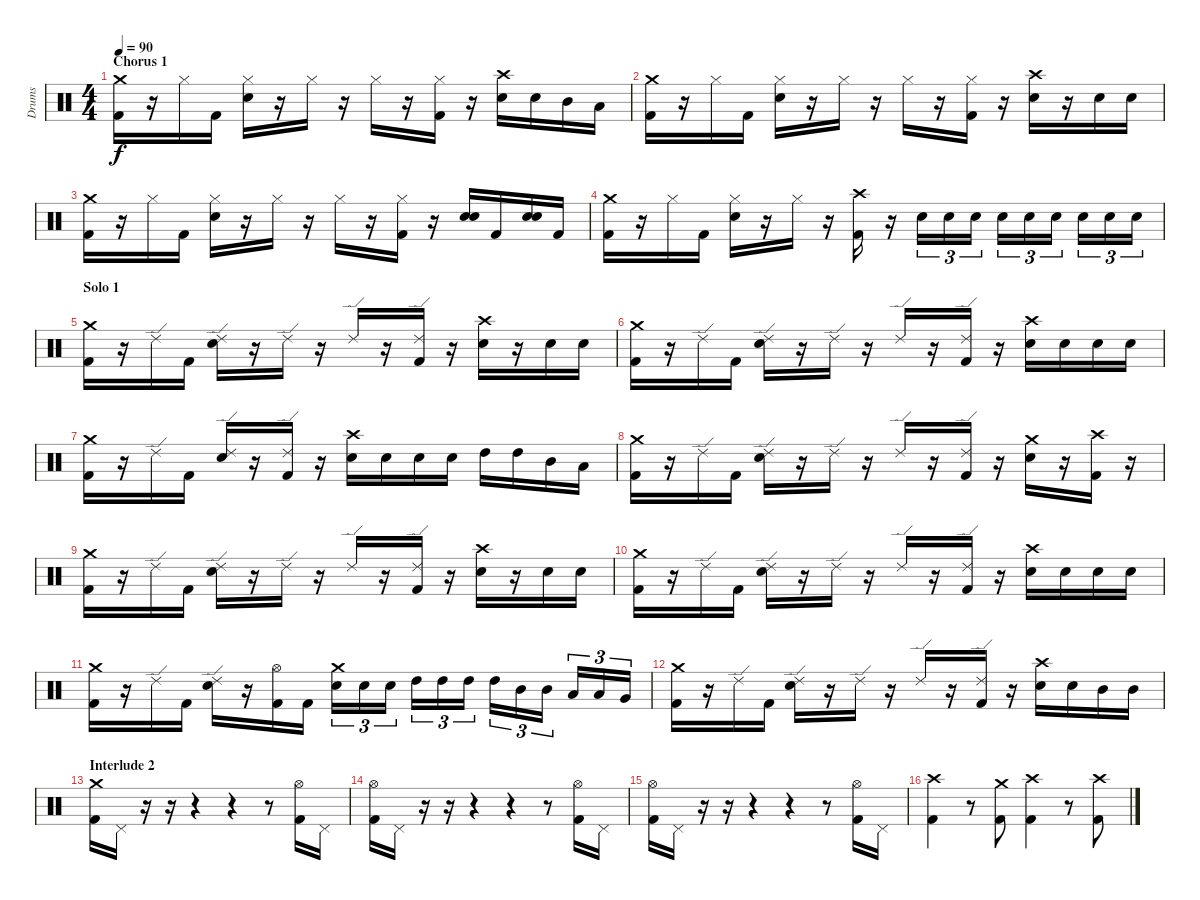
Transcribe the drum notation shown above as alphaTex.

\track ("Drums" "Drums") {instrument percussion}
\staff {score}
\articulation defaults
\ts (4 4)
\section ("" "Chorus 1")
\tempo 90
\clef neutral
\ks c
("Crash medium (hit)" "Kick (hit) 2").16{dy f} r.16 "Hi-Hat (closed)".16 "Kick (hit) 2".16 ("Hi-Hat (closed)" "Electric Snare (hit)").16 r.16 "Hi-Hat (closed)".16 r.16 "Hi-Hat (closed)".16 r.16 ("Hi-Hat (closed)" "Kick (hit) 2").16 r.16 ("Crash high (hit)" "Electric Snare (hit)").16 "Electric Snare (hit)".16 "Mid Tom (hit)".16 "Low Tom (hit)".16 |
("Crash medium (hit)" "Kick (hit) 2").16 r.16 "Hi-Hat (closed)".16 "Kick (hit) 2".16 ("Hi-Hat (closed)" "Electric Snare (hit)").16 r.16 "Hi-Hat (closed)".16 r.16 "Hi-Hat (closed)".16 r.16 ("Hi-Hat (closed)" "Kick (hit) 2").16 r.16 ("Crash high (hit)" "Electric Snare (hit)").16 r.16 "Electric Snare (hit)".16 "Electric Snare (hit)".16 |
("Crash medium (hit)" "Kick (hit) 2").16 r.16 "Hi-Hat (closed)".16 "Kick (hit) 2".16 ("Hi-Hat (closed)" "Electric Snare (hit)").16 r.16 "Hi-Hat (closed)".16 r.16 "Hi-Hat (closed)".16 r.16 ("Hi-Hat (closed)" "Kick (hit) 2").16 r.16 ("Electric Snare (hit)" "Electric Snare (hit)").16{bd 120} "Kick (hit) 2".16 ("Electric Snare (hit)" "Electric Snare (hit)").16{bd 120} "Kick (hit) 2".16 |
("Crash medium (hit)" "Kick (hit) 2").16 r.16 "Hi-Hat (closed)".16 "Kick (hit) 2".16 ("Hi-Hat (closed)" "Electric Snare (hit)").16 r.16 "Hi-Hat (closed)".16 r.16 ("Crash high (hit)" "Kick (hit) 2").16 r.16 "Electric Snare (hit)".16{tu (3 2)} "Electric Snare (hit)".16{tu (3 2)} "Electric Snare (hit)".16{tu (3 2)} "Electric Snare (hit)".16{tu (3 2)} "Electric Snare (hit)".16{tu (3 2)} "Electric Snare (hit)".16{tu (3 2)} "Electric Snare (hit)".16{tu (3 2)} "Electric Snare (hit)".16{tu (3 2)} "Electric Snare (hit)".16{tu (3 2)} |
\section ("" "Solo 1")
("Crash medium (hit)" "Kick (hit) 2").16 r.16 "Ride (edge) 2".16 "Kick (hit) 2".16 ("Ride (edge) 2" "Electric Snare (hit)").16 r.16 "Ride (edge) 2".16 r.16 "Ride (edge) 2".16 r.16 ("Ride (edge) 2" "Kick (hit) 2").16 r.16 ("Crash high (hit)" "Electric Snare (hit)").16 r.16 "Electric Snare (hit)".16 "Electric Snare (hit)".16 |
("Crash medium (hit)" "Kick (hit) 2").16 r.16 "Ride (edge) 2".16 "Kick (hit) 2".16 ("Ride (edge) 2" "Electric Snare (hit)").16 r.16 "Ride (edge) 2".16 r.16 "Ride (edge) 2".16 r.16 ("Ride (edge) 2" "Kick (hit) 2").16 r.16 ("Crash high (hit)" "Electric Snare (hit)").16 "Electric Snare (hit)".16 "Electric Snare (hit)".16 "Electric Snare (hit)".16 |
("Crash medium (hit)" "Kick (hit) 2").16 r.16 "Ride (edge) 2".16 "Kick (hit) 2".16 ("Ride (edge) 2" "Electric Snare (hit)").16 r.16 ("Ride (edge) 2" "Kick (hit) 2").16 r.16 ("Crash high (hit)" "Electric Snare (hit)").16 "Electric Snare (hit)".16 "Electric Snare (hit)".16 "Electric Snare (hit)".16 "High Tom (hit)".16 "High Tom (hit)".16 "Mid Tom (hit)".16 "Low Tom (hit)".16 |
("Crash medium (hit)" "Kick (hit) 2").16 r.16 "Ride (edge) 2".16 "Kick (hit) 2".16 ("Ride (edge) 2" "Electric Snare (hit)").16 r.16 "Ride (edge) 2".16 r.16 "Ride (edge) 2".16 r.16 ("Ride (edge) 2" "Kick (hit) 2").16 r.16 ("Crash medium (hit)" "Electric Snare (hit)").16 r.16 ("Crash high (hit)" "Kick (hit) 2").16 r.16 |
("Crash medium (hit)" "Kick (hit) 2").16 r.16 "Ride (edge) 2".16 "Kick (hit) 2".16 ("Ride (edge) 2" "Electric Snare (hit)").16 r.16 "Ride (edge) 2".16 r.16 "Ride (edge) 2".16 r.16 ("Ride (edge) 2" "Kick (hit) 2").16 r.16 ("Crash high (hit)" "Electric Snare (hit)").16 r.16 "Electric Snare (hit)".16 "Electric Snare (hit)".16 |
("Crash medium (hit)" "Kick (hit) 2").16 r.16 "Ride (edge) 2".16 "Kick (hit) 2".16 ("Ride (edge) 2" "Electric Snare (hit)").16 r.16 "Ride (edge) 2".16 r.16 "Ride (edge) 2".16 r.16 ("Ride (edge) 2" "Kick (hit) 2").16 r.16 ("Crash high (hit)" "Electric Snare (hit)").16 "Electric Snare (hit)".16 "Electric Snare (hit)".16 "Electric Snare (hit)".16 |
("Crash medium (hit)" "Kick (hit) 2").16 r.16 "Ride (edge) 2".16 "Kick (hit) 2".16 ("Ride (edge) 2" "Electric Snare (hit)").16 r.16 ("Hi-Hat (open)" "Kick (hit) 2").16 "Kick (hit) 2".16 ("Crash medium (hit)" "Electric Snare (hit)").16{tu (3 2)} "Electric Snare (hit)".16{tu (3 2)} "Electric Snare (hit)".16{tu (3 2)} "High Tom (hit)".16{tu (3 2)} "High Tom (hit)".16{tu (3 2)} "High Tom (hit)".16{tu (3 2)} "High Tom (hit)".16{tu (3 2)} "Mid Tom (hit)".16{tu (3 2)} "Mid Tom (hit)".16{tu (3 2)} "Low Tom (hit)".16{tu (3 2)} "Low Tom (hit)".16{tu (3 2)} "Very Low Tom (hit)".16{tu (3 2)} |
("Crash medium (hit)" "Kick (hit) 2").16 r.16 "Ride (edge) 2".16 "Kick (hit) 2".16 ("Ride (edge) 2" "Electric Snare (hit)").16 r.16 "Ride (edge) 2".16 r.16 "Ride (edge) 2".16 r.16 ("Ride (edge) 2" "Kick (hit) 2").16 r.16 ("Crash high (hit)" "Electric Snare (hit)").16 "Electric Snare (hit)".16 "Mid Tom (hit)".16 "Mid Tom (hit)".16 |
\section ("" "Interlude 2")
("Crash medium (hit)" "Kick (hit) 2").16 "Pedal Hi-Hat (hit)".16 r.16 r.16 r.4 r.4 r.8 ("Hi-Hat (open)" "Kick (hit) 2").16 "Pedal Hi-Hat (hit)".16 |
("Hi-Hat (open)" "Kick (hit) 2").16 "Pedal Hi-Hat (hit)".16 r.16 r.16 r.4 r.4 r.8 ("Hi-Hat (open)" "Kick (hit) 2").16 "Pedal Hi-Hat (hit)".16 |
("Hi-Hat (open)" "Kick (hit) 2").16 "Pedal Hi-Hat (hit)".16 r.16 r.16 r.4 r.4 r.8 ("Hi-Hat (open)" "Kick (hit) 2").16 "Pedal Hi-Hat (hit)".16 |
("Crash high (hit)" "Kick (hit) 2").4 r.8 ("Crash medium (hit)" "Kick (hit) 2").8 ("Crash high (hit)" "Kick (hit) 2").4 r.8 ("Crash high (hit)" "Kick (hit) 2").8
